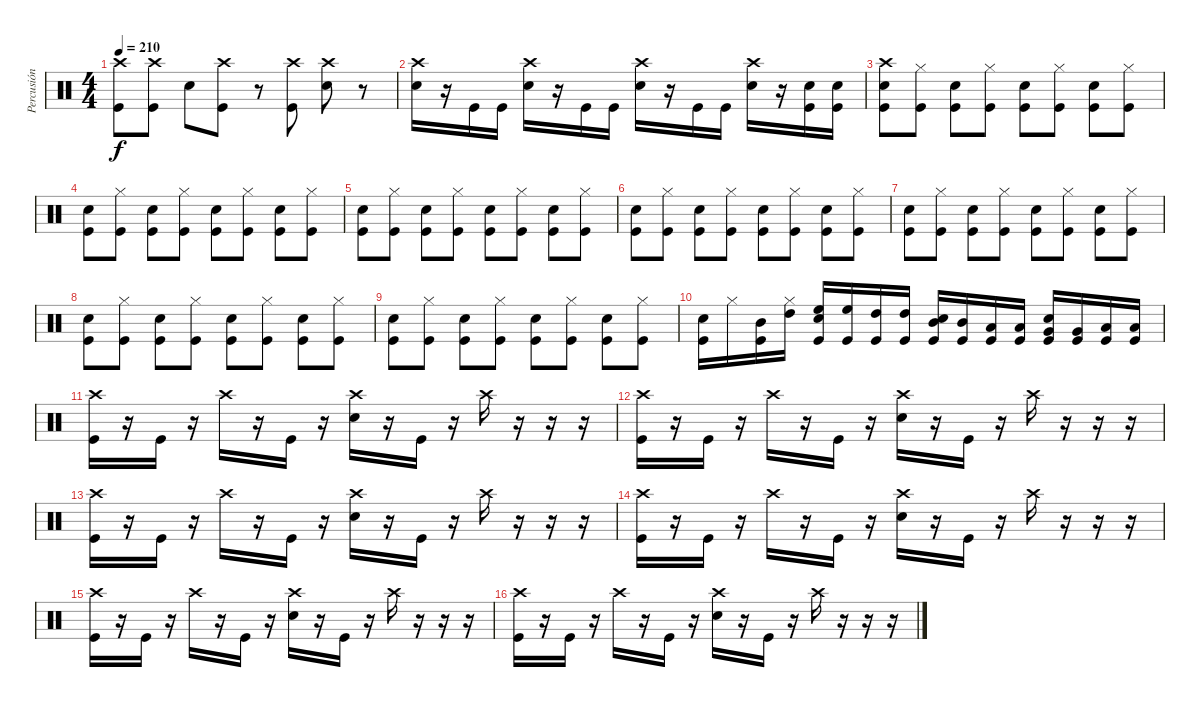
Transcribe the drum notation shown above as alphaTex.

\track ("Percusión" "Percusión") {instrument percussion}
\staff {score}
\articulation defaults
\ts (4 4)
\tempo 210
\clef neutral
\ks c
("Crash high (hit)" "Kick (hit)").8{dy f} ("Crash high (hit)" "Kick (hit)").8 "Snare (hit) 2".8 ("Crash high (hit)" "Kick (hit)").8 r.8 ("Crash high (hit)" "Kick (hit)").8 ("Crash high (hit)" "Snare (hit) 2").8 r.8 |
("Crash high (hit)" "Snare (hit) 2").16 r.16 "Kick (hit)".16 "Kick (hit)".16 ("Crash high (hit)" "Snare (hit) 2").16 r.16 "Kick (hit)".16 "Kick (hit)".16 ("Crash high (hit)" "Snare (hit) 2").16 r.16 "Kick (hit)".16 "Kick (hit)".16 ("Crash high (hit)" "Snare (hit) 2").16 r.16 ("Snare (hit) 2" "Kick (hit)").16 ("Snare (hit) 2" "Kick (hit)").16 |
("Crash high (hit)" "Snare (hit) 2" "Kick (hit)").8 ("Hi-Hat (closed)" "Kick (hit)").8 ("Snare (hit) 2" "Kick (hit)").8 ("Hi-Hat (closed)" "Kick (hit)").8 ("Snare (hit) 2" "Kick (hit)").8 ("Hi-Hat (closed)" "Kick (hit)").8 ("Snare (hit) 2" "Kick (hit)").8 ("Hi-Hat (closed)" "Kick (hit)").8 |
("Snare (hit) 2" "Kick (hit)").8 ("Hi-Hat (closed)" "Kick (hit)").8 ("Snare (hit) 2" "Kick (hit)").8 ("Hi-Hat (closed)" "Kick (hit)").8 ("Snare (hit) 2" "Kick (hit)").8 ("Hi-Hat (closed)" "Kick (hit)").8 ("Snare (hit) 2" "Kick (hit)").8 ("Hi-Hat (closed)" "Kick (hit)").8 |
("Snare (hit) 2" "Kick (hit)").8 ("Hi-Hat (closed)" "Kick (hit)").8 ("Snare (hit) 2" "Kick (hit)").8 ("Hi-Hat (closed)" "Kick (hit)").8 ("Snare (hit) 2" "Kick (hit)").8 ("Hi-Hat (closed)" "Kick (hit)").8 ("Snare (hit) 2" "Kick (hit)").8 ("Hi-Hat (closed)" "Kick (hit)").8 |
("Snare (hit) 2" "Kick (hit)").8 ("Hi-Hat (closed)" "Kick (hit)").8 ("Snare (hit) 2" "Kick (hit)").8 ("Hi-Hat (closed)" "Kick (hit)").8 ("Snare (hit) 2" "Kick (hit)").8 ("Hi-Hat (closed)" "Kick (hit)").8 ("Snare (hit) 2" "Kick (hit)").8 ("Hi-Hat (closed)" "Kick (hit)").8 |
("Snare (hit) 2" "Kick (hit)").8 ("Hi-Hat (closed)" "Kick (hit)").8 ("Snare (hit) 2" "Kick (hit)").8 ("Hi-Hat (closed)" "Kick (hit)").8 ("Snare (hit) 2" "Kick (hit)").8 ("Hi-Hat (closed)" "Kick (hit)").8 ("Snare (hit) 2" "Kick (hit)").8 ("Hi-Hat (closed)" "Kick (hit)").8 |
("Snare (hit) 2" "Kick (hit)").8 ("Hi-Hat (closed)" "Kick (hit)").8 ("Snare (hit) 2" "Kick (hit)").8 ("Hi-Hat (closed)" "Kick (hit)").8 ("Snare (hit) 2" "Kick (hit)").8 ("Hi-Hat (closed)" "Kick (hit)").8 ("Snare (hit) 2" "Kick (hit)").8 ("Hi-Hat (closed)" "Kick (hit)").8 |
("Snare (hit) 2" "Kick (hit)").8 ("Hi-Hat (closed)" "Kick (hit)").8 ("Snare (hit) 2" "Kick (hit)").8 ("Hi-Hat (closed)" "Kick (hit)").8 ("Snare (hit) 2" "Kick (hit)").8 ("Hi-Hat (closed)" "Kick (hit)").8 ("Snare (hit) 2" "Kick (hit)").8 ("Hi-Hat (closed)" "Kick (hit)").8 |
("Snare (hit) 2" "Kick (hit)").16 "Hi-Hat (closed)".16 ("Mid Tom (hit)" "Kick (hit)").16 ("Hi-Hat (closed)" "High Tom (hit)").16 ("High Floor Tom (hit)" "Snare (hit) 2" "Kick (hit)").16 ("High Floor Tom (hit)" "Kick (hit)").16 ("High Tom (hit)" "Kick (hit)").16 ("High Tom (hit)" "Kick (hit)").16 ("Mid Tom (hit)" "Snare (hit) 2" "Kick (hit)").16 ("Mid Tom (hit)" "Kick (hit)").16 ("Low Tom (hit)" "Kick (hit)").16 ("Low Tom (hit)" "Kick (hit)").16 ("Very Low Tom (hit)" "Snare (hit) 2" "Kick (hit)").16 ("Very Low Tom (hit)" "Kick (hit)").16 ("Low Floor Tom (hit)" "Kick (hit)").16 ("Low Floor Tom (hit)" "Kick (hit)").16 |
("Crash high (hit)" "Kick (hit)").16 r.16 "Kick (hit)".16 r.16 "Crash high (hit)".16 r.16 "Kick (hit)".16 r.16 ("Crash high (hit)" "Snare (hit) 2").16 r.16 "Kick (hit)".16 r.16 "Crash high (hit)".16 r.16 r.16 r.16 |
("Crash high (hit)" "Kick (hit)").16 r.16 "Kick (hit)".16 r.16 "Crash high (hit)".16 r.16 "Kick (hit)".16 r.16 ("Crash high (hit)" "Snare (hit) 2").16 r.16 "Kick (hit)".16 r.16 "Crash high (hit)".16 r.16 r.16 r.16 |
("Crash high (hit)" "Kick (hit)").16 r.16 "Kick (hit)".16 r.16 "Crash high (hit)".16 r.16 "Kick (hit)".16 r.16 ("Crash high (hit)" "Snare (hit) 2").16 r.16 "Kick (hit)".16 r.16 "Crash high (hit)".16 r.16 r.16 r.16 |
("Crash high (hit)" "Kick (hit)").16 r.16 "Kick (hit)".16 r.16 "Crash high (hit)".16 r.16 "Kick (hit)".16 r.16 ("Crash high (hit)" "Snare (hit) 2").16 r.16 "Kick (hit)".16 r.16 "Crash high (hit)".16 r.16 r.16 r.16 |
("Crash high (hit)" "Kick (hit)").16 r.16 "Kick (hit)".16 r.16 "Crash high (hit)".16 r.16 "Kick (hit)".16 r.16 ("Crash high (hit)" "Snare (hit) 2").16 r.16 "Kick (hit)".16 r.16 "Crash high (hit)".16 r.16 r.16 r.16 |
("Crash high (hit)" "Kick (hit)").16 r.16 "Kick (hit)".16 r.16 "Crash high (hit)".16 r.16 "Kick (hit)".16 r.16 ("Crash high (hit)" "Snare (hit) 2").16 r.16 "Kick (hit)".16 r.16 "Crash high (hit)".16 r.16 r.16 r.16
